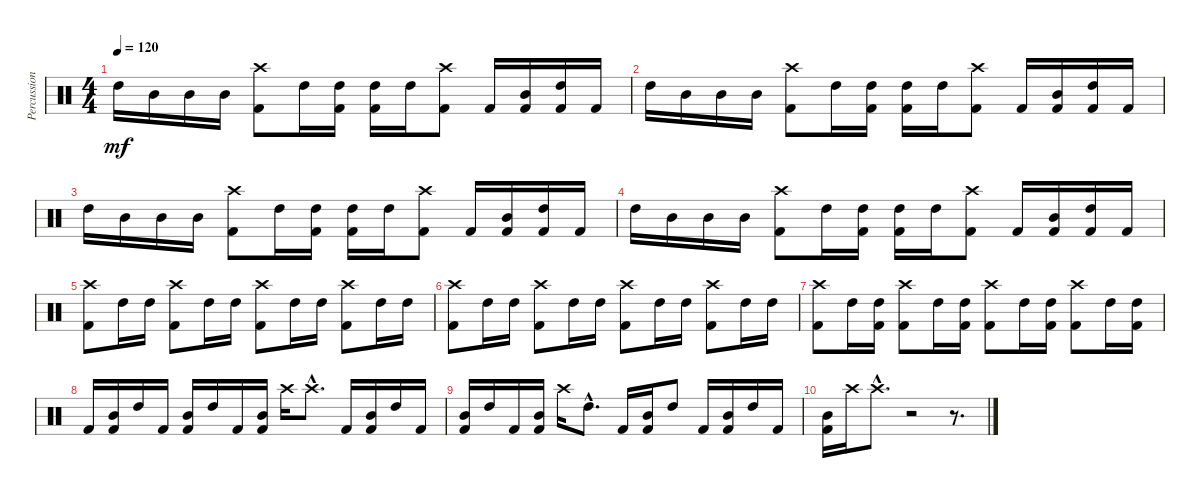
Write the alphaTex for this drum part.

\track ("Percussion" "Percussion") {instrument percussion}
\staff {score}
\articulation defaults
\ts (4 4)
\tempo 120
\clef neutral
\ks c "High Tom (hit)".16{dy mf} "Mid Tom (hit)".16 "Mid Tom (hit)".16 "Mid Tom (hit)".16
("Crash high (hit)" "Kick (hit) 2").8 "High Tom (hit)".16 ("High Tom (hit)" "Kick (hit) 2").16 ("High Tom (hit)" "Kick (hit) 2").16 "High Tom (hit)".16 ("Crash high (hit)" "Kick (hit) 2").8 "Kick (hit) 2".16 ("Mid Tom (hit)" "Kick (hit) 2").16 ("High Tom (hit)" "Kick (hit) 2").16 "Kick (hit) 2".16 |
"High Tom (hit)".16 "Mid Tom (hit)".16 "Mid Tom (hit)".16 "Mid Tom (hit)".16 ("Crash high (hit)" "Kick (hit) 2").8 "High Tom (hit)".16 ("High Tom (hit)" "Kick (hit) 2").16 ("High Tom (hit)" "Kick (hit) 2").16 "High Tom (hit)".16 ("Crash high (hit)" "Kick (hit) 2").8 "Kick (hit) 2".16 ("Mid Tom (hit)" "Kick (hit) 2").16 ("High Tom (hit)" "Kick (hit) 2").16 "Kick (hit) 2".16 |
"High Tom (hit)".16 "Mid Tom (hit)".16 "Mid Tom (hit)".16 "Mid Tom (hit)".16 ("Crash high (hit)" "Kick (hit) 2").8 "High Tom (hit)".16 ("High Tom (hit)" "Kick (hit) 2").16 ("High Tom (hit)" "Kick (hit) 2").16 "High Tom (hit)".16 ("Crash high (hit)" "Kick (hit) 2").8 "Kick (hit) 2".16 ("Mid Tom (hit)" "Kick (hit) 2").16 ("High Tom (hit)" "Kick (hit) 2").16 "Kick (hit) 2".16 |
"High Tom (hit)".16 "Mid Tom (hit)".16 "Mid Tom (hit)".16 "Mid Tom (hit)".16 ("Crash high (hit)" "Kick (hit) 2").8 "High Tom (hit)".16 ("High Tom (hit)" "Kick (hit) 2").16 ("High Tom (hit)" "Kick (hit) 2").16 "High Tom (hit)".16 ("Crash high (hit)" "Kick (hit) 2").8 "Kick (hit) 2".16 ("Mid Tom (hit)" "Kick (hit) 2").16 ("High Tom (hit)" "Kick (hit) 2").16 "Kick (hit) 2".16 |
("Crash high (hit)" "Kick (hit) 2").8 "High Tom (hit)".16 "High Tom (hit)".16 ("Crash high (hit)" "Kick (hit) 2").8 "High Tom (hit)".16 "High Tom (hit)".16 ("Crash high (hit)" "Kick (hit) 2").8 "High Tom (hit)".16 "High Tom (hit)".16 ("Crash high (hit)" "Kick (hit) 2").8 "High Tom (hit)".16 "High Tom (hit)".16 |
("Crash high (hit)" "Kick (hit) 2").8 "High Tom (hit)".16 "High Tom (hit)".16 ("Crash high (hit)" "Kick (hit) 2").8 "High Tom (hit)".16 "High Tom (hit)".16 ("Crash high (hit)" "Kick (hit) 2").8 "High Tom (hit)".16 "High Tom (hit)".16 ("Crash high (hit)" "Kick (hit) 2").8 "High Tom (hit)".16 "High Tom (hit)".16 |
("Crash high (hit)" "Kick (hit) 2").8 "High Tom (hit)".16 ("High Tom (hit)" "Kick (hit) 2").16 ("Crash high (hit)" "Kick (hit) 2").8 "High Tom (hit)".16 ("High Tom (hit)" "Kick (hit) 2").16 ("Crash high (hit)" "Kick (hit) 2").8 "High Tom (hit)".16 ("High Tom (hit)" "Kick (hit) 2").16 ("Crash high (hit)" "Kick (hit) 2").8 "High Tom (hit)".16 ("High Tom (hit)" "Kick (hit) 2").16 |
"Kick (hit) 2".16 ("Mid Tom (hit)" "Kick (hit) 2").16 "High Tom (hit)".16 "Kick (hit) 2".16 ("Mid Tom (hit)" "Kick (hit) 2").16 "High Tom (hit)".16 "Kick (hit) 2".16 ("Mid Tom (hit)" "Kick (hit) 2").16 "Crash high (hit)".16 "Crash high (hit)"{hac}.8{d} "Kick (hit) 2".16 ("Mid Tom (hit)" "Kick (hit) 2").16 "High Tom (hit)".16 "Kick (hit) 2".16 |
("Mid Tom (hit)" "Kick (hit) 2").16 "High Tom (hit)".16 "Kick (hit) 2".16 ("Mid Tom (hit)" "Kick (hit) 2").16 "Crash high (hit)".16 "High Tom (hit)"{hac}.8{d} "Kick (hit) 2".16 ("Mid Tom (hit)" "Kick (hit) 2").16 "High Tom (hit)".8 "Kick (hit) 2".16 ("Mid Tom (hit)" "Kick (hit) 2").16 "High Tom (hit)".16 "Kick (hit) 2".16 |
("Mid Tom (hit)" "Kick (hit) 2").16 "Crash high (hit)".16 "Crash high (hit)"{hac}.8{d} r.2 r.8{d}
